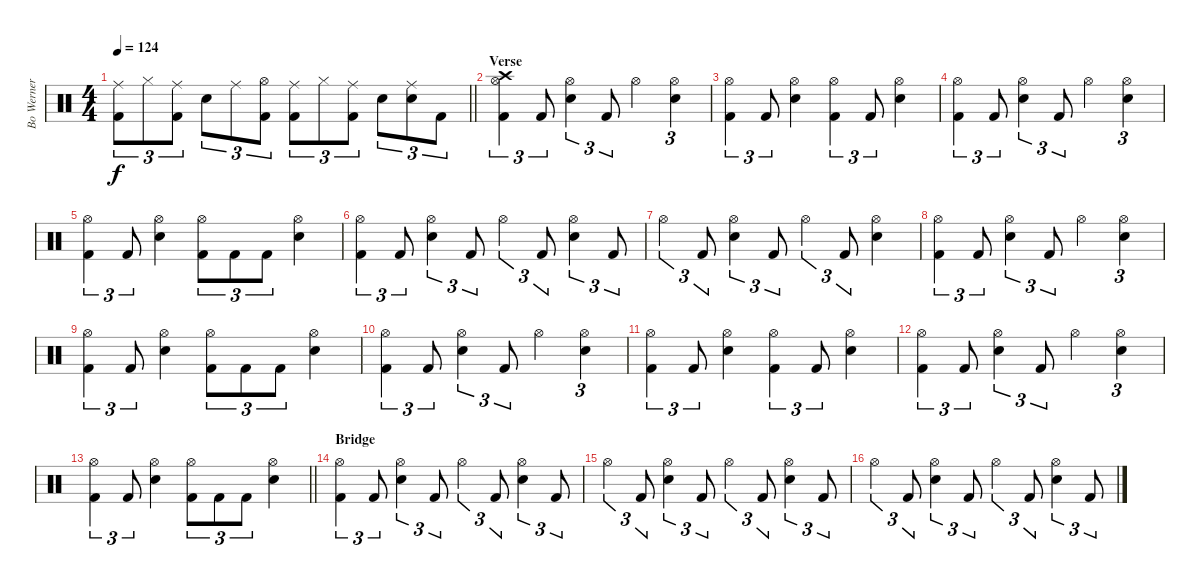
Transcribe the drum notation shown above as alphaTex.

\track ("Bo Werner " "Bo Werner ") {instrument percussion}
\staff {score}
\articulation defaults
\ts (4 4)
\tempo 124
\clef neutral
\barLineRight lightlight
\ks c
("Ride (middle)" "Kick (hit) 2").8{tu (3 2) dy f} "Hi-Hat (closed)".8{tu (3 2)} ("Ride (middle)" "Kick (hit) 2").8{tu (3 2)} "Electric Snare (hit)".8{tu (3 2)} "Ride (middle)".8{tu (3 2)} ("Hi-Hat (open)" "Kick (hit) 2").8{tu (3 2)} ("Ride (middle)" "Kick (hit) 2").8{tu (3 2)} "Hi-Hat (closed)".8{tu (3 2)} ("Ride (middle)" "Kick (hit) 2").8{tu (3 2)} "Electric Snare (hit)".8{tu (3 2)} ("Ride (middle)" "Electric Snare (hit)").8{tu (3 2)} "Kick (hit) 2".8{tu (3 2)} |
\section ("" "Verse")
("Crash high (hit)" "Hi-Hat (open)" "Kick (hit) 2").4{tu (3 2)} "Kick (hit) 2".8{tu (3 2)} ("Hi-Hat (open)" "Snare (hit) 2").4{tu (3 2)} "Kick (hit) 2".8{tu (3 2)} "Hi-Hat (open)".4 ("Hi-Hat (open)" "Snare (hit) 2").4{tu (3 2)} |
("Hi-Hat (open)" "Kick (hit) 2").4{tu (3 2)} "Kick (hit) 2".8{tu (3 2)} ("Hi-Hat (open)" "Snare (hit) 2").4 ("Hi-Hat (open)" "Kick (hit) 2").4{tu (3 2)} "Kick (hit) 2".8{tu (3 2)} ("Hi-Hat (open)" "Snare (hit) 2").4 |
("Hi-Hat (open)" "Kick (hit) 2").4{tu (3 2)} "Kick (hit) 2".8{tu (3 2)} ("Hi-Hat (open)" "Snare (hit) 2").4{tu (3 2)} "Kick (hit) 2".8{tu (3 2)} "Hi-Hat (open)".4 ("Hi-Hat (open)" "Snare (hit) 2").4{tu (3 2)} |
("Hi-Hat (open)" "Kick (hit) 2").4{tu (3 2)} "Kick (hit) 2".8{tu (3 2)} ("Hi-Hat (open)" "Snare (hit) 2").4 ("Hi-Hat (open)" "Kick (hit) 2").8{tu (3 2)} "Kick (hit) 2".8{tu (3 2)} "Kick (hit) 2".8{tu (3 2)} ("Hi-Hat (open)" "Snare (hit) 2").4 |
("Hi-Hat (open)" "Kick (hit) 2").4{tu (3 2)} "Kick (hit) 2".8{tu (3 2)} ("Hi-Hat (open)" "Snare (hit) 2").4{tu (3 2)} "Kick (hit) 2".8{tu (3 2)} "Hi-Hat (open)".4{tu (3 2)} "Kick (hit) 2".8{tu (3 2)} ("Hi-Hat (open)" "Snare (hit) 2").4{tu (3 2)} "Kick (hit) 2".8{tu (3 2)} |
"Hi-Hat (open)".4{tu (3 2)} "Kick (hit) 2".8{tu (3 2)} ("Hi-Hat (open)" "Snare (hit) 2").4{tu (3 2)} "Kick (hit) 2".8{tu (3 2)} "Hi-Hat (open)".4{tu (3 2)} "Kick (hit) 2".8{tu (3 2)} ("Hi-Hat (open)" "Snare (hit) 2").4 |
("Hi-Hat (open)" "Kick (hit) 2").4{tu (3 2)} "Kick (hit) 2".8{tu (3 2)} ("Hi-Hat (open)" "Snare (hit) 2").4{tu (3 2)} "Kick (hit) 2".8{tu (3 2)} "Hi-Hat (open)".4 ("Hi-Hat (open)" "Snare (hit) 2").4{tu (3 2)} |
("Hi-Hat (open)" "Kick (hit) 2").4{tu (3 2)} "Kick (hit) 2".8{tu (3 2)} ("Hi-Hat (open)" "Snare (hit) 2").4 ("Hi-Hat (open)" "Kick (hit) 2").8{tu (3 2)} "Kick (hit) 2".8{tu (3 2)} "Kick (hit) 2".8{tu (3 2)} ("Hi-Hat (open)" "Snare (hit) 2").4 |
("Hi-Hat (open)" "Kick (hit) 2").4{tu (3 2)} "Kick (hit) 2".8{tu (3 2)} ("Hi-Hat (open)" "Snare (hit) 2").4{tu (3 2)} "Kick (hit) 2".8{tu (3 2)} "Hi-Hat (open)".4 ("Hi-Hat (open)" "Snare (hit) 2").4{tu (3 2)} |
("Hi-Hat (open)" "Kick (hit) 2").4{tu (3 2)} "Kick (hit) 2".8{tu (3 2)} ("Hi-Hat (open)" "Snare (hit) 2").4 ("Hi-Hat (open)" "Kick (hit) 2").4{tu (3 2)} "Kick (hit) 2".8{tu (3 2)} ("Hi-Hat (open)" "Snare (hit) 2").4 |
("Hi-Hat (open)" "Kick (hit) 2").4{tu (3 2)} "Kick (hit) 2".8{tu (3 2)} ("Hi-Hat (open)" "Snare (hit) 2").4{tu (3 2)} "Kick (hit) 2".8{tu (3 2)} "Hi-Hat (open)".4 ("Hi-Hat (open)" "Snare (hit) 2").4{tu (3 2)} |
\barLineRight lightlight
("Hi-Hat (open)" "Kick (hit) 2").4{tu (3 2)} "Kick (hit) 2".8{tu (3 2)} ("Hi-Hat (open)" "Snare (hit) 2").4 ("Hi-Hat (open)" "Kick (hit) 2").8{tu (3 2)} "Kick (hit) 2".8{tu (3 2)} "Kick (hit) 2".8{tu (3 2)} ("Hi-Hat (open)" "Snare (hit) 2").4 |
\section ("" "Bridge")
("Hi-Hat (open)" "Kick (hit) 2").4{tu (3 2)} "Kick (hit) 2".8{tu (3 2)} ("Hi-Hat (open)" "Snare (hit) 2").4{tu (3 2)} "Kick (hit) 2".8{tu (3 2)} "Hi-Hat (open)".4{tu (3 2)} "Kick (hit) 2".8{tu (3 2)} ("Hi-Hat (open)" "Snare (hit) 2").4{tu (3 2)} "Kick (hit) 2".8{tu (3 2)} |
"Hi-Hat (open)".4{tu (3 2)} "Kick (hit) 2".8{tu (3 2)} ("Hi-Hat (open)" "Snare (hit) 2").4{tu (3 2)} "Kick (hit) 2".8{tu (3 2)} "Hi-Hat (open)".4{tu (3 2)} "Kick (hit) 2".8{tu (3 2)} ("Hi-Hat (open)" "Snare (hit) 2").4{tu (3 2)} "Kick (hit) 2".8{tu (3 2)} |
"Hi-Hat (open)".4{tu (3 2)} "Kick (hit) 2".8{tu (3 2)} ("Hi-Hat (open)" "Snare (hit) 2").4{tu (3 2)} "Kick (hit) 2".8{tu (3 2)} "Hi-Hat (open)".4{tu (3 2)} "Kick (hit) 2".8{tu (3 2)} ("Hi-Hat (open)" "Snare (hit) 2").4{tu (3 2)} "Kick (hit) 2".8{tu (3 2)}
